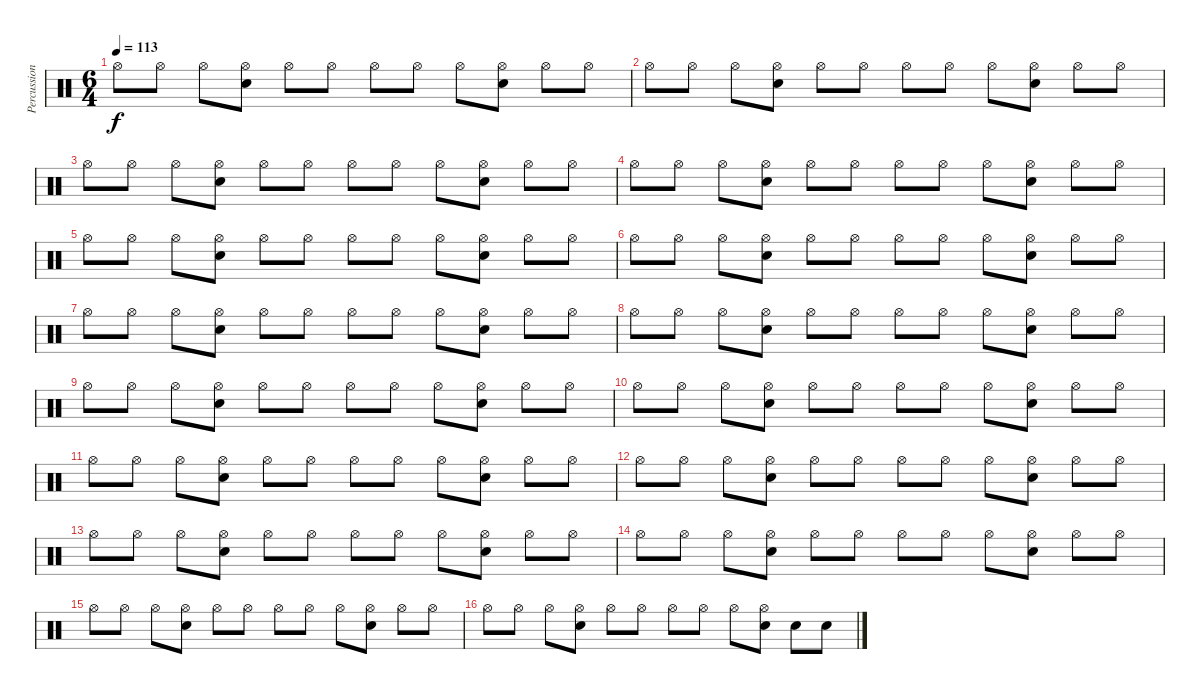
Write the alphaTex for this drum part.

\track ("Percussion" "Percussion") {instrument percussion}
\staff {score}
\articulation defaults
\ts (6 4)
\tempo 113
\clef neutral
\ks c "Hi-Hat (open)".8{dy f} "Hi-Hat (open)".8 "Hi-Hat (open)".8
("Electric Snare (hit)" "Hi-Hat (open)").8 "Hi-Hat (open)".8 "Hi-Hat (open)".8 "Hi-Hat (open)".8 "Hi-Hat (open)".8 "Hi-Hat (open)".8 ("Electric Snare (hit)" "Hi-Hat (open)").8 "Hi-Hat (open)".8 "Hi-Hat (open)".8 |
"Hi-Hat (open)".8 "Hi-Hat (open)".8 "Hi-Hat (open)".8 ("Electric Snare (hit)" "Hi-Hat (open)").8 "Hi-Hat (open)".8 "Hi-Hat (open)".8 "Hi-Hat (open)".8 "Hi-Hat (open)".8 "Hi-Hat (open)".8 ("Electric Snare (hit)" "Hi-Hat (open)").8 "Hi-Hat (open)".8 "Hi-Hat (open)".8 |
"Hi-Hat (open)".8 "Hi-Hat (open)".8 "Hi-Hat (open)".8 ("Electric Snare (hit)" "Hi-Hat (open)").8 "Hi-Hat (open)".8 "Hi-Hat (open)".8 "Hi-Hat (open)".8 "Hi-Hat (open)".8 "Hi-Hat (open)".8 ("Electric Snare (hit)" "Hi-Hat (open)").8 "Hi-Hat (open)".8 "Hi-Hat (open)".8 |
"Hi-Hat (open)".8 "Hi-Hat (open)".8 "Hi-Hat (open)".8 ("Electric Snare (hit)" "Hi-Hat (open)").8 "Hi-Hat (open)".8 "Hi-Hat (open)".8 "Hi-Hat (open)".8 "Hi-Hat (open)".8 "Hi-Hat (open)".8 ("Electric Snare (hit)" "Hi-Hat (open)").8 "Hi-Hat (open)".8 "Hi-Hat (open)".8 |
"Hi-Hat (open)".8 "Hi-Hat (open)".8 "Hi-Hat (open)".8 ("Electric Snare (hit)" "Hi-Hat (open)").8 "Hi-Hat (open)".8 "Hi-Hat (open)".8 "Hi-Hat (open)".8 "Hi-Hat (open)".8 "Hi-Hat (open)".8 ("Electric Snare (hit)" "Hi-Hat (open)").8 "Hi-Hat (open)".8 "Hi-Hat (open)".8 |
"Hi-Hat (open)".8 "Hi-Hat (open)".8 "Hi-Hat (open)".8 ("Electric Snare (hit)" "Hi-Hat (open)").8 "Hi-Hat (open)".8 "Hi-Hat (open)".8 "Hi-Hat (open)".8 "Hi-Hat (open)".8 "Hi-Hat (open)".8 ("Electric Snare (hit)" "Hi-Hat (open)").8 "Hi-Hat (open)".8 "Hi-Hat (open)".8 |
"Hi-Hat (open)".8 "Hi-Hat (open)".8 "Hi-Hat (open)".8 ("Electric Snare (hit)" "Hi-Hat (open)").8 "Hi-Hat (open)".8 "Hi-Hat (open)".8 "Hi-Hat (open)".8 "Hi-Hat (open)".8 "Hi-Hat (open)".8 ("Electric Snare (hit)" "Hi-Hat (open)").8 "Hi-Hat (open)".8 "Hi-Hat (open)".8 |
"Hi-Hat (open)".8 "Hi-Hat (open)".8 "Hi-Hat (open)".8 ("Electric Snare (hit)" "Hi-Hat (open)").8 "Hi-Hat (open)".8 "Hi-Hat (open)".8 "Hi-Hat (open)".8 "Hi-Hat (open)".8 "Hi-Hat (open)".8 ("Electric Snare (hit)" "Hi-Hat (open)").8 "Hi-Hat (open)".8 "Hi-Hat (open)".8 |
"Hi-Hat (open)".8 "Hi-Hat (open)".8 "Hi-Hat (open)".8 ("Electric Snare (hit)" "Hi-Hat (open)").8 "Hi-Hat (open)".8 "Hi-Hat (open)".8 "Hi-Hat (open)".8 "Hi-Hat (open)".8 "Hi-Hat (open)".8 ("Electric Snare (hit)" "Hi-Hat (open)").8 "Hi-Hat (open)".8 "Hi-Hat (open)".8 |
"Hi-Hat (open)".8 "Hi-Hat (open)".8 "Hi-Hat (open)".8 ("Electric Snare (hit)" "Hi-Hat (open)").8 "Hi-Hat (open)".8 "Hi-Hat (open)".8 "Hi-Hat (open)".8 "Hi-Hat (open)".8 "Hi-Hat (open)".8 ("Electric Snare (hit)" "Hi-Hat (open)").8 "Hi-Hat (open)".8 "Hi-Hat (open)".8 |
"Hi-Hat (open)".8 "Hi-Hat (open)".8 "Hi-Hat (open)".8 ("Electric Snare (hit)" "Hi-Hat (open)").8 "Hi-Hat (open)".8 "Hi-Hat (open)".8 "Hi-Hat (open)".8 "Hi-Hat (open)".8 "Hi-Hat (open)".8 ("Electric Snare (hit)" "Hi-Hat (open)").8 "Hi-Hat (open)".8 "Hi-Hat (open)".8 |
"Hi-Hat (open)".8 "Hi-Hat (open)".8 "Hi-Hat (open)".8 ("Electric Snare (hit)" "Hi-Hat (open)").8 "Hi-Hat (open)".8 "Hi-Hat (open)".8 "Hi-Hat (open)".8 "Hi-Hat (open)".8 "Hi-Hat (open)".8 ("Electric Snare (hit)" "Hi-Hat (open)").8 "Hi-Hat (open)".8 "Hi-Hat (open)".8 |
"Hi-Hat (open)".8 "Hi-Hat (open)".8 "Hi-Hat (open)".8 ("Electric Snare (hit)" "Hi-Hat (open)").8 "Hi-Hat (open)".8 "Hi-Hat (open)".8 "Hi-Hat (open)".8 "Hi-Hat (open)".8 "Hi-Hat (open)".8 ("Electric Snare (hit)" "Hi-Hat (open)").8 "Hi-Hat (open)".8 "Hi-Hat (open)".8 |
"Hi-Hat (open)".8 "Hi-Hat (open)".8 "Hi-Hat (open)".8 ("Electric Snare (hit)" "Hi-Hat (open)").8 "Hi-Hat (open)".8 "Hi-Hat (open)".8 "Hi-Hat (open)".8 "Hi-Hat (open)".8 "Hi-Hat (open)".8 ("Electric Snare (hit)" "Hi-Hat (open)").8 "Hi-Hat (open)".8 "Hi-Hat (open)".8 |
"Hi-Hat (open)".8 "Hi-Hat (open)".8 "Hi-Hat (open)".8 ("Electric Snare (hit)" "Hi-Hat (open)").8 "Hi-Hat (open)".8 "Hi-Hat (open)".8 "Hi-Hat (open)".8 "Hi-Hat (open)".8 "Hi-Hat (open)".8 ("Electric Snare (hit)" "Hi-Hat (open)").8 "Hi-Hat (open)".8 "Hi-Hat (open)".8 |
"Hi-Hat (open)".8 "Hi-Hat (open)".8 "Hi-Hat (open)".8 ("Electric Snare (hit)" "Hi-Hat (open)").8 "Hi-Hat (open)".8 "Hi-Hat (open)".8 "Hi-Hat (open)".8 "Hi-Hat (open)".8 "Hi-Hat (open)".8 ("Electric Snare (hit)" "Hi-Hat (open)").8 "Electric Snare (hit)".8 "Electric Snare (hit)".8
